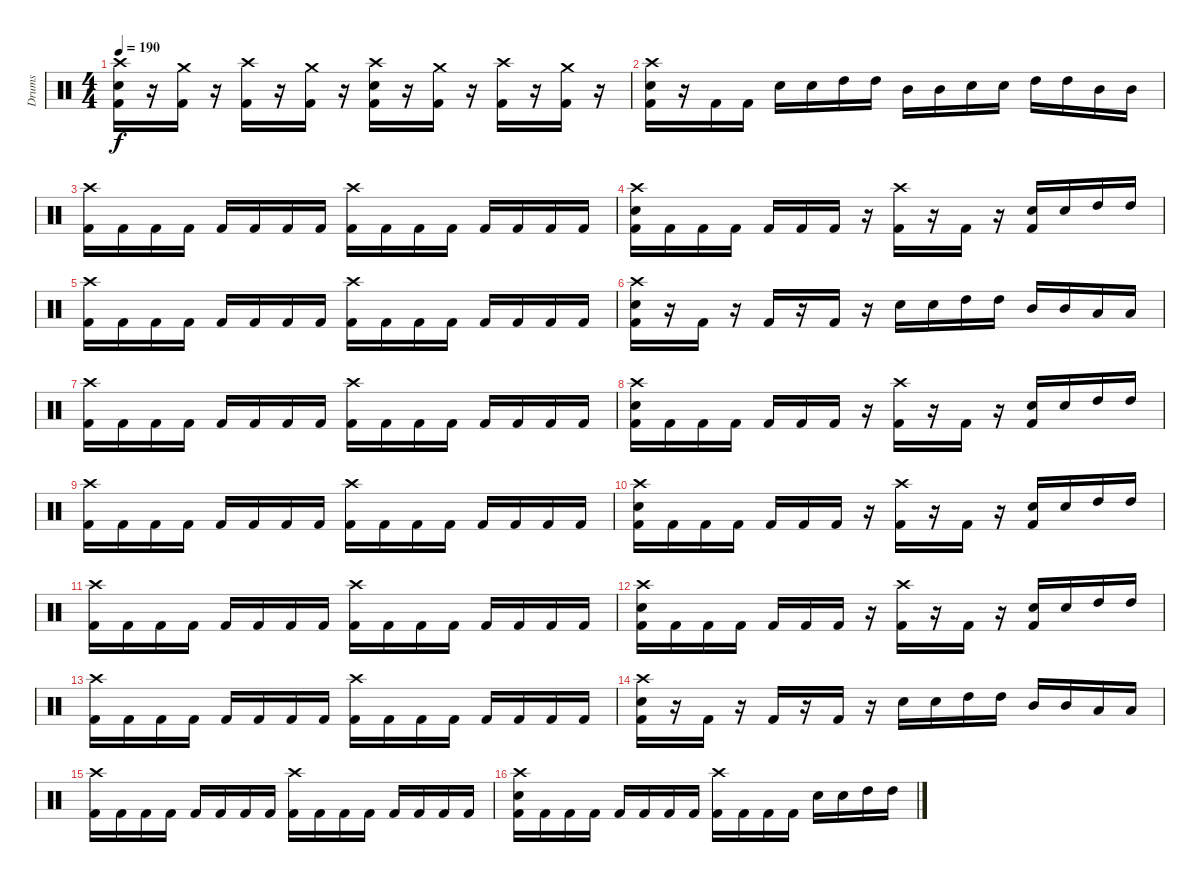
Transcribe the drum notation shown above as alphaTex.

\track ("Drums" "Drums") {instrument percussion}
\staff {score}
\articulation defaults
\ts (4 4)
\tempo 190
\clef neutral
\ks c
("Crash high (hit)" "Electric Snare (hit)" "Kick (hit) 2").16{dy f} r.16 ("Crash medium (hit)" "Kick (hit) 2").16 r.16 ("Crash high (hit)" "Kick (hit) 2").16 r.16 ("Crash medium (hit)" "Kick (hit) 2").16 r.16 ("Crash high (hit)" "Electric Snare (hit)" "Kick (hit) 2").16 r.16 ("Crash medium (hit)" "Kick (hit) 2").16 r.16 ("Crash high (hit)" "Kick (hit) 2").16 r.16 ("Crash medium (hit)" "Kick (hit) 2").16 r.16 |
("Crash high (hit)" "Electric Snare (hit)" "Kick (hit) 2").16 r.16 "Kick (hit) 2".16 "Kick (hit) 2".16 "Electric Snare (hit)".16 "Electric Snare (hit)".16 "High Tom (hit)".16 "High Tom (hit)".16 "Mid Tom (hit)".16 "Mid Tom (hit)".16 "Electric Snare (hit)".16 "Electric Snare (hit)".16 "High Tom (hit)".16 "High Tom (hit)".16 "Mid Tom (hit)".16 "Mid Tom (hit)".16 |
("Crash high (hit)" "Kick (hit) 2").16 "Kick (hit) 2".16 "Kick (hit) 2".16 "Kick (hit) 2".16 "Kick (hit) 2".16 "Kick (hit) 2".16 "Kick (hit) 2".16 "Kick (hit) 2".16 ("Crash high (hit)" "Kick (hit) 2").16 "Kick (hit) 2".16 "Kick (hit) 2".16 "Kick (hit) 2".16 "Kick (hit) 2".16 "Kick (hit) 2".16 "Kick (hit) 2".16 "Kick (hit) 2".16 |
("Crash high (hit)" "Electric Snare (hit)" "Kick (hit) 2").16 "Kick (hit) 2".16 "Kick (hit) 2".16 "Kick (hit) 2".16 "Kick (hit) 2".16 "Kick (hit) 2".16 "Kick (hit) 2".16 r.16 ("Crash high (hit)" "Kick (hit) 2").16 r.16 "Kick (hit) 2".16 r.16 ("Electric Snare (hit)" "Kick (hit) 2").16 "Electric Snare (hit)".16 "High Tom (hit)".16 "High Tom (hit)".16 |
("Crash high (hit)" "Kick (hit) 2").16 "Kick (hit) 2".16 "Kick (hit) 2".16 "Kick (hit) 2".16 "Kick (hit) 2".16 "Kick (hit) 2".16 "Kick (hit) 2".16 "Kick (hit) 2".16 ("Crash high (hit)" "Kick (hit) 2").16 "Kick (hit) 2".16 "Kick (hit) 2".16 "Kick (hit) 2".16 "Kick (hit) 2".16 "Kick (hit) 2".16 "Kick (hit) 2".16 "Kick (hit) 2".16 |
("Crash high (hit)" "Electric Snare (hit)" "Kick (hit) 2").16 r.16 "Kick (hit) 2".16 r.16 "Kick (hit) 2".16 r.16 "Kick (hit) 2".16 r.16 "Electric Snare (hit)".16 "Electric Snare (hit)".16 "High Tom (hit)".16 "High Tom (hit)".16 "Mid Tom (hit)".16 "Mid Tom (hit)".16 "Low Tom (hit)".16 "Low Tom (hit)".16 |
("Crash high (hit)" "Kick (hit) 2").16 "Kick (hit) 2".16 "Kick (hit) 2".16 "Kick (hit) 2".16 "Kick (hit) 2".16 "Kick (hit) 2".16 "Kick (hit) 2".16 "Kick (hit) 2".16 ("Crash high (hit)" "Kick (hit) 2").16 "Kick (hit) 2".16 "Kick (hit) 2".16 "Kick (hit) 2".16 "Kick (hit) 2".16 "Kick (hit) 2".16 "Kick (hit) 2".16 "Kick (hit) 2".16 |
("Crash high (hit)" "Electric Snare (hit)" "Kick (hit) 2").16 "Kick (hit) 2".16 "Kick (hit) 2".16 "Kick (hit) 2".16 "Kick (hit) 2".16 "Kick (hit) 2".16 "Kick (hit) 2".16 r.16 ("Crash high (hit)" "Kick (hit) 2").16 r.16 "Kick (hit) 2".16 r.16 ("Electric Snare (hit)" "Kick (hit) 2").16 "Electric Snare (hit)".16 "High Tom (hit)".16 "High Tom (hit)".16 |
("Crash high (hit)" "Kick (hit) 2").16 "Kick (hit) 2".16 "Kick (hit) 2".16 "Kick (hit) 2".16 "Kick (hit) 2".16 "Kick (hit) 2".16 "Kick (hit) 2".16 "Kick (hit) 2".16 ("Crash high (hit)" "Kick (hit) 2").16 "Kick (hit) 2".16 "Kick (hit) 2".16 "Kick (hit) 2".16 "Kick (hit) 2".16 "Kick (hit) 2".16 "Kick (hit) 2".16 "Kick (hit) 2".16 |
("Crash high (hit)" "Electric Snare (hit)" "Kick (hit) 2").16 "Kick (hit) 2".16 "Kick (hit) 2".16 "Kick (hit) 2".16 "Kick (hit) 2".16 "Kick (hit) 2".16 "Kick (hit) 2".16 r.16 ("Crash high (hit)" "Kick (hit) 2").16 r.16 "Kick (hit) 2".16 r.16 ("Electric Snare (hit)" "Kick (hit) 2").16 "Electric Snare (hit)".16 "High Tom (hit)".16 "High Tom (hit)".16 |
("Crash high (hit)" "Kick (hit) 2").16 "Kick (hit) 2".16 "Kick (hit) 2".16 "Kick (hit) 2".16 "Kick (hit) 2".16 "Kick (hit) 2".16 "Kick (hit) 2".16 "Kick (hit) 2".16 ("Crash high (hit)" "Kick (hit) 2").16 "Kick (hit) 2".16 "Kick (hit) 2".16 "Kick (hit) 2".16 "Kick (hit) 2".16 "Kick (hit) 2".16 "Kick (hit) 2".16 "Kick (hit) 2".16 |
("Crash high (hit)" "Electric Snare (hit)" "Kick (hit) 2").16 "Kick (hit) 2".16 "Kick (hit) 2".16 "Kick (hit) 2".16 "Kick (hit) 2".16 "Kick (hit) 2".16 "Kick (hit) 2".16 r.16 ("Crash high (hit)" "Kick (hit) 2").16 r.16 "Kick (hit) 2".16 r.16 ("Electric Snare (hit)" "Kick (hit) 2").16 "Electric Snare (hit)".16 "High Tom (hit)".16 "High Tom (hit)".16 |
("Crash high (hit)" "Kick (hit) 2").16 "Kick (hit) 2".16 "Kick (hit) 2".16 "Kick (hit) 2".16 "Kick (hit) 2".16 "Kick (hit) 2".16 "Kick (hit) 2".16 "Kick (hit) 2".16 ("Crash high (hit)" "Kick (hit) 2").16 "Kick (hit) 2".16 "Kick (hit) 2".16 "Kick (hit) 2".16 "Kick (hit) 2".16 "Kick (hit) 2".16 "Kick (hit) 2".16 "Kick (hit) 2".16 |
("Crash high (hit)" "Electric Snare (hit)" "Kick (hit) 2").16 r.16 "Kick (hit) 2".16 r.16 "Kick (hit) 2".16 r.16 "Kick (hit) 2".16 r.16 "Electric Snare (hit)".16 "Electric Snare (hit)".16 "High Tom (hit)".16 "High Tom (hit)".16 "Mid Tom (hit)".16 "Mid Tom (hit)".16 "Low Tom (hit)".16 "Low Tom (hit)".16 |
("Crash high (hit)" "Kick (hit) 2").16 "Kick (hit) 2".16 "Kick (hit) 2".16 "Kick (hit) 2".16 "Kick (hit) 2".16 "Kick (hit) 2".16 "Kick (hit) 2".16 "Kick (hit) 2".16 ("Crash high (hit)" "Kick (hit) 2").16 "Kick (hit) 2".16 "Kick (hit) 2".16 "Kick (hit) 2".16 "Kick (hit) 2".16 "Kick (hit) 2".16 "Kick (hit) 2".16 "Kick (hit) 2".16 |
("Crash high (hit)" "Electric Snare (hit)" "Kick (hit) 2").16 "Kick (hit) 2".16 "Kick (hit) 2".16 "Kick (hit) 2".16 "Kick (hit) 2".16 "Kick (hit) 2".16 "Kick (hit) 2".16 "Kick (hit) 2".16 ("Crash high (hit)" "Kick (hit) 2").16 "Kick (hit) 2".16 "Kick (hit) 2".16 "Kick (hit) 2".16 "Electric Snare (hit)".16 "Electric Snare (hit)".16 "High Tom (hit)".16 "High Tom (hit)".16
